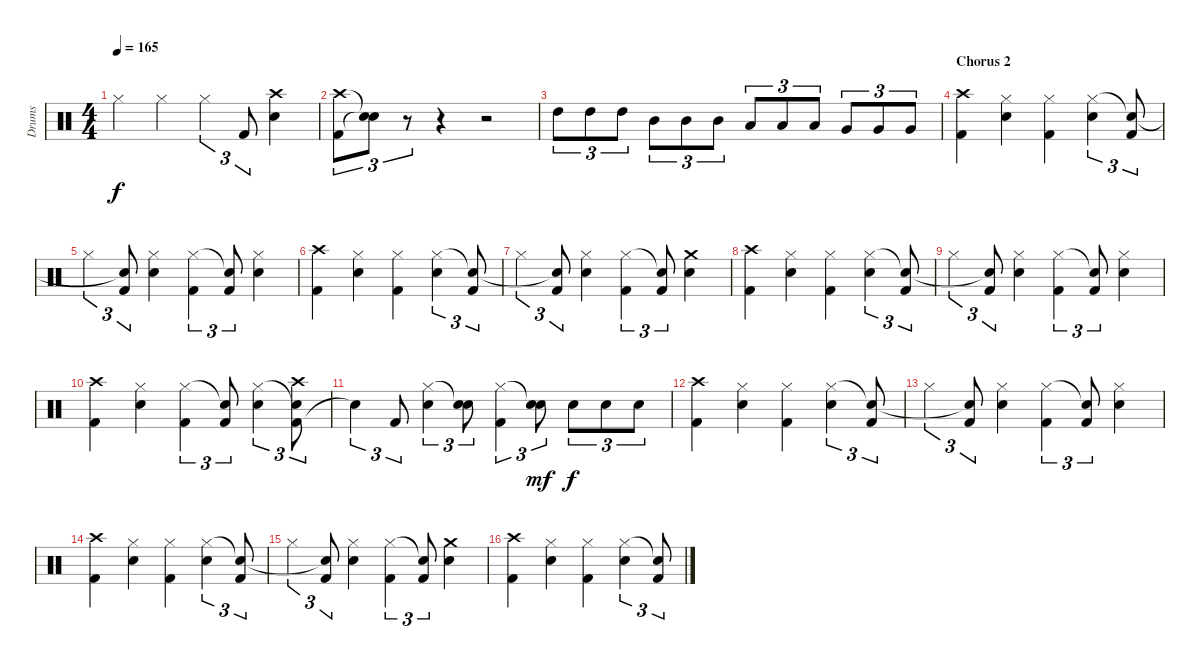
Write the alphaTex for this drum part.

\track ("Drums" "Drums") {instrument percussion}
\staff {score}
\articulation defaults
\ts (4 4)
\tempo 165
\clef neutral
\ks c "Hi-Hat (closed)".4{dy f} "Hi-Hat (closed)".4 "Hi-Hat (closed)".4{tu (3 2)} "Kick (hit) 2".8{tu (3 2)}
("Snare (hit) 2" "Crash high (hit)").4 |
("Kick (hit) 2" "Crash high (hit)").8{tu (3 2)} ("Snare (hit)"{t} "Snare (hit)"{t}).8{tu (3 2)} r.8{tu (3 2)} r.4 r.2 |
"High Tom (hit)".8{tu (3 2)} "High Tom (hit)".8{tu (3 2)} "High Tom (hit)".8{tu (3 2)} "Mid Tom (hit)".8{tu (3 2)} "Mid Tom (hit)".8{tu (3 2)} "Mid Tom (hit)".8{tu (3 2)} "Low Tom (hit)".8{tu (3 2)} "Low Tom (hit)".8{tu (3 2)} "Low Tom (hit)".8{tu (3 2)} "Very Low Tom (hit)".8{tu (3 2)} "Very Low Tom (hit)".8{tu (3 2)} "Very Low Tom (hit)".8{tu (3 2)} |
\section ("" "Chorus 2")
("Kick (hit) 2" "Crash high (hit)").4 ("Snare (hit) 2" "Hi-Hat (closed)").4 ("Kick (hit) 2" "Hi-Hat (closed)").4 ("Snare (hit) 2" "Hi-Hat (closed)").4{tu (3 2)} ("Kick (hit) 2" "Snare (hit)"{t}).8{tu (3 2)} |
"Hi-Hat (closed)".4{tu (3 2)} ("Kick (hit) 2" "Snare (hit)"{t}).8{tu (3 2)} ("Snare (hit) 2" "Hi-Hat (closed)").4 ("Kick (hit) 2" "Hi-Hat (closed)").4{tu (3 2)} ("Kick (hit) 2" "Snare (hit)"{t}).8{tu (3 2)} ("Snare (hit) 2" "Hi-Hat (closed)").4 |
("Kick (hit) 2" "Crash high (hit)").4 ("Snare (hit) 2" "Hi-Hat (closed)").4 ("Kick (hit) 2" "Hi-Hat (closed)").4 ("Snare (hit) 2" "Hi-Hat (closed)").4{tu (3 2)} ("Kick (hit) 2" "Snare (hit)"{t}).8{tu (3 2)} |
"Hi-Hat (closed)".4{tu (3 2)} ("Kick (hit) 2" "Snare (hit)"{t}).8{tu (3 2)} ("Snare (hit) 2" "Hi-Hat (closed)").4 ("Kick (hit) 2" "Hi-Hat (closed)").4{tu (3 2)} ("Kick (hit) 2" "Snare (hit)"{t}).8{tu (3 2)} ("Snare (hit) 2" "Crash medium (hit)").4 |
("Kick (hit) 2" "Crash high (hit)").4 ("Snare (hit) 2" "Hi-Hat (closed)").4 ("Kick (hit) 2" "Hi-Hat (closed)").4 ("Snare (hit) 2" "Hi-Hat (closed)").4{tu (3 2)} ("Kick (hit) 2" "Snare (hit)"{t}).8{tu (3 2)} |
"Hi-Hat (closed)".4{tu (3 2)} ("Kick (hit) 2" "Snare (hit)"{t}).8{tu (3 2)} ("Snare (hit) 2" "Hi-Hat (closed)").4 ("Kick (hit) 2" "Hi-Hat (closed)").4{tu (3 2)} ("Kick (hit) 2" "Snare (hit)"{t}).8{tu (3 2)} ("Snare (hit) 2" "Hi-Hat (closed)").4 |
("Kick (hit) 2" "Crash high (hit)").4 ("Snare (hit) 2" "Hi-Hat (closed)").4 ("Kick (hit) 2" "Hi-Hat (closed)").4{tu (3 2)} ("Kick (hit) 2" "Snare (hit)"{t}).8{tu (3 2)} ("Snare (hit) 2" "Hi-Hat (closed)").4{tu (3 2)} ("Kick (hit) 2" "Snare (hit)"{t} "Crash high (hit)").8{tu (3 2)} |
"Snare (hit)"{t}.4{tu (3 2)} "Kick (hit) 2".8{tu (3 2)} ("Snare (hit) 2" "Hi-Hat (closed)").4{tu (3 2)} ("Snare (hit) 2" "Snare (hit)"{t}).8{tu (3 2)} ("Kick (hit) 2" "Hi-Hat (closed)").4{tu (3 2)} ("Snare (hit) 2" "Snare (hit)"{t}).8{tu (3 2) dy mf} "Snare (hit) 2".8{tu (3 2) dy f} "Snare (hit) 2".8{tu (3 2)} "Snare (hit) 2".8{tu (3 2)} |
("Kick (hit) 2" "Crash high (hit)").4 ("Snare (hit) 2" "Hi-Hat (closed)").4 ("Kick (hit) 2" "Hi-Hat (closed)").4 ("Snare (hit) 2" "Hi-Hat (closed)").4{tu (3 2)} ("Kick (hit) 2" "Snare (hit)"{t}).8{tu (3 2)} |
"Hi-Hat (closed)".4{tu (3 2)} ("Kick (hit) 2" "Snare (hit)"{t}).8{tu (3 2)} ("Snare (hit) 2" "Hi-Hat (closed)").4 ("Kick (hit) 2" "Hi-Hat (closed)").4{tu (3 2)} ("Kick (hit) 2" "Snare (hit)"{t}).8{tu (3 2)} ("Snare (hit) 2" "Hi-Hat (closed)").4 |
("Kick (hit) 2" "Crash high (hit)").4 ("Snare (hit) 2" "Hi-Hat (closed)").4 ("Kick (hit) 2" "Hi-Hat (closed)").4 ("Snare (hit) 2" "Hi-Hat (closed)").4{tu (3 2)} ("Kick (hit) 2" "Snare (hit)"{t}).8{tu (3 2)} |
"Hi-Hat (closed)".4{tu (3 2)} ("Kick (hit) 2" "Snare (hit)"{t}).8{tu (3 2)} ("Snare (hit) 2" "Hi-Hat (closed)").4 ("Kick (hit) 2" "Hi-Hat (closed)").4{tu (3 2)} ("Kick (hit) 2" "Snare (hit)"{t}).8{tu (3 2)} ("Snare (hit) 2" "Crash medium (hit)").4 |
("Kick (hit) 2" "Crash high (hit)").4 ("Snare (hit) 2" "Hi-Hat (closed)").4 ("Kick (hit) 2" "Hi-Hat (closed)").4 ("Snare (hit) 2" "Hi-Hat (closed)").4{tu (3 2)} ("Kick (hit) 2" "Snare (hit)"{t}).8{tu (3 2)}
